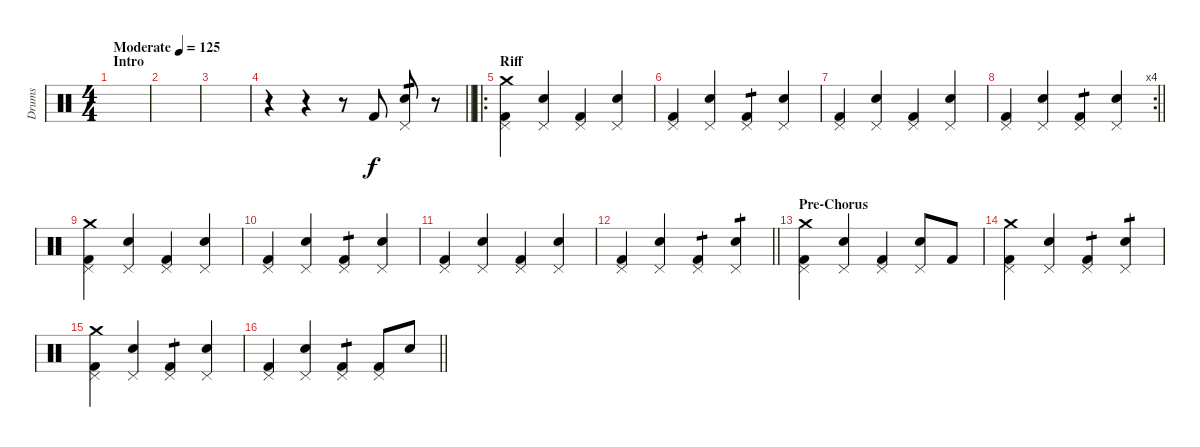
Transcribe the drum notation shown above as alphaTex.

\track ("Drums" "Drums") {instrument percussion}
\staff {score}
\articulation defaults
\ts (4 4)
\section ("" "Intro")
\tempo (125 "Moderate")
\clef neutral
\ks c
|
|
|
\barLineRight lightlight
r.4 r.4 r.8 "Kick (hit) 2".8 ("Snare (hit) 2" "Pedal Hi-Hat (hit)").8{tp 1} r.8 |
\ro
\section ("" "Riff")
("Kick (hit) 2" "Crash medium (hit)" "Pedal Hi-Hat (hit)").4 ("Snare (hit) 2" "Pedal Hi-Hat (hit)").4 ("Kick (hit) 2" "Pedal Hi-Hat (hit)").4 ("Snare (hit) 2" "Pedal Hi-Hat (hit)").4 |
("Kick (hit) 2" "Pedal Hi-Hat (hit)").4 ("Snare (hit) 2" "Pedal Hi-Hat (hit)").4 ("Kick (hit) 2" "Pedal Hi-Hat (hit)").4{tp 1} ("Snare (hit) 2" "Pedal Hi-Hat (hit)").4 |
("Kick (hit) 2" "Pedal Hi-Hat (hit)").4 ("Snare (hit) 2" "Pedal Hi-Hat (hit)").4 ("Kick (hit) 2" "Pedal Hi-Hat (hit)").4 ("Snare (hit) 2" "Pedal Hi-Hat (hit)").4 |
\rc 4
\barLineRight lightlight
("Kick (hit) 2" "Pedal Hi-Hat (hit)").4 ("Snare (hit) 2" "Pedal Hi-Hat (hit)").4 ("Kick (hit) 2" "Pedal Hi-Hat (hit)").4{tp 1} ("Snare (hit) 2" "Pedal Hi-Hat (hit)").4 |
("Kick (hit) 2" "Crash medium (hit)" "Pedal Hi-Hat (hit)").4 ("Snare (hit) 2" "Pedal Hi-Hat (hit)").4 ("Kick (hit) 2" "Pedal Hi-Hat (hit)").4 ("Snare (hit) 2" "Pedal Hi-Hat (hit)").4 |
("Kick (hit) 2" "Pedal Hi-Hat (hit)").4 ("Snare (hit) 2" "Pedal Hi-Hat (hit)").4 ("Kick (hit) 2" "Pedal Hi-Hat (hit)").4{tp 1} ("Snare (hit) 2" "Pedal Hi-Hat (hit)").4 |
("Kick (hit) 2" "Pedal Hi-Hat (hit)").4 ("Snare (hit) 2" "Pedal Hi-Hat (hit)").4 ("Kick (hit) 2" "Pedal Hi-Hat (hit)").4 ("Snare (hit) 2" "Pedal Hi-Hat (hit)").4 |
\barLineRight lightlight
("Kick (hit) 2" "Pedal Hi-Hat (hit)").4 ("Snare (hit) 2" "Pedal Hi-Hat (hit)").4 ("Kick (hit) 2" "Pedal Hi-Hat (hit)").4{tp 1} ("Snare (hit) 2" "Pedal Hi-Hat (hit)").4{tp 1} |
\section ("" "Pre-Chorus")
("Kick (hit) 2" "Crash medium (hit)" "Pedal Hi-Hat (hit)").4 ("Snare (hit) 2" "Pedal Hi-Hat (hit)").4 ("Kick (hit) 2" "Pedal Hi-Hat (hit)").4 ("Snare (hit) 2" "Pedal Hi-Hat (hit)").8 "Kick (hit) 2".8 |
("Kick (hit) 2" "Crash medium (hit)" "Pedal Hi-Hat (hit)").4 ("Snare (hit) 2" "Pedal Hi-Hat (hit)").4 ("Kick (hit) 2" "Pedal Hi-Hat (hit)").4{tp 1} ("Snare (hit) 2" "Pedal Hi-Hat (hit)").4{tp 1} |
("Kick (hit) 2" "Crash medium (hit)" "Pedal Hi-Hat (hit)").4 ("Snare (hit) 2" "Pedal Hi-Hat (hit)").4 ("Kick (hit) 2" "Pedal Hi-Hat (hit)").4{tp 1} ("Snare (hit) 2" "Pedal Hi-Hat (hit)").4 |
\barLineRight lightlight
("Kick (hit) 2" "Pedal Hi-Hat (hit)").4 ("Snare (hit) 2" "Pedal Hi-Hat (hit)").4 ("Kick (hit) 2" "Pedal Hi-Hat (hit)").4{tp 1} ("Kick (hit) 2" "Pedal Hi-Hat (hit)").8 "Snare (hit) 2".8
